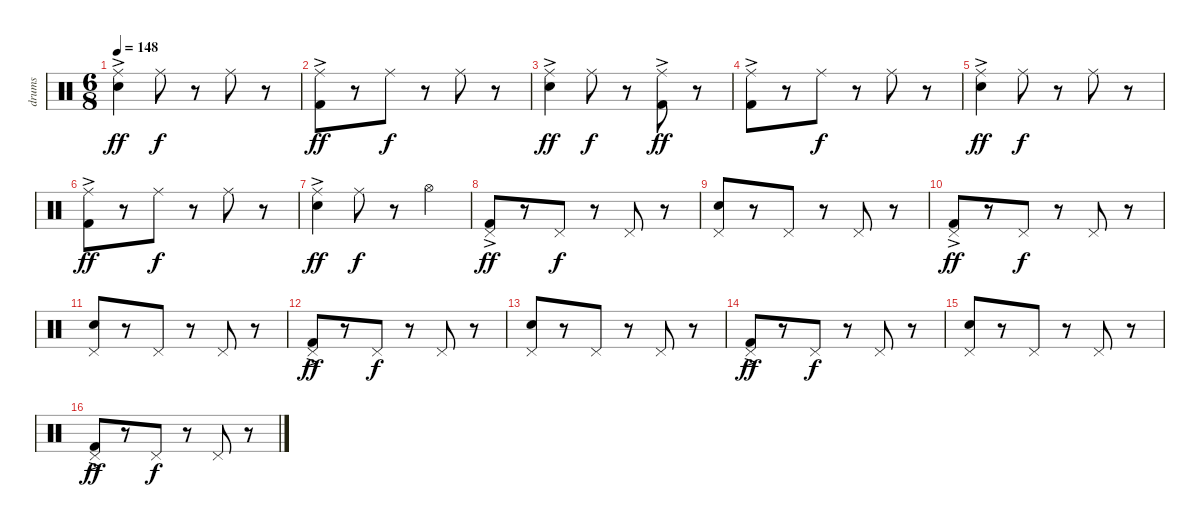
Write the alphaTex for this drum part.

\track ("drums" "drums") {instrument percussion}
\staff {score}
\articulation defaults
\ts (6 8)
\tempo 148
\clef neutral
\ks c
("Ride (middle)" "Electric Snare (hit)"{ac}).4{dy ff} "Ride (middle)".8{dy f} r.8 "Ride (middle)".8 r.8 |
("Ride (middle)" "Kick (hit) 2"{ac}).8{dy ff} r.8 "Ride (middle)".8{dy f} r.8 "Ride (middle)".8 r.8 |
("Ride (middle)" "Electric Snare (hit)"{ac}).4{dy ff} "Ride (middle)".8{dy f} r.8 ("Ride (middle)" "Kick (hit) 2"{ac}).8{dy ff} r.8 |
("Ride (middle)" "Kick (hit) 2"{ac}).8 r.8 "Ride (middle)".8{dy f} r.8 "Ride (middle)".8 r.8 |
("Ride (middle)" "Electric Snare (hit)"{ac}).4{dy ff} "Ride (middle)".8{dy f} r.8 "Ride (middle)".8 r.8 |
("Ride (middle)" "Kick (hit) 2"{ac}).8{dy ff} r.8 "Ride (middle)".8{dy f} r.8 "Ride (middle)".8 r.8 |
("Ride (middle)" "Electric Snare (hit)"{ac}).4{dy ff} "Ride (middle)".8{dy f} r.8 "Hi-Hat (open)".4 |
("Pedal Hi-Hat (hit)" "Kick (hit) 2"{ac}).8{dy ff} r.8 "Pedal Hi-Hat (hit)".8{dy f} r.8 "Pedal Hi-Hat (hit)".8 r.8 |
("Pedal Hi-Hat (hit)" "Electric Snare (hit)").8 r.8 "Pedal Hi-Hat (hit)".8 r.8 "Pedal Hi-Hat (hit)".8 r.8 |
("Pedal Hi-Hat (hit)" "Kick (hit) 2"{ac}).8{dy ff} r.8 "Pedal Hi-Hat (hit)".8{dy f} r.8 "Pedal Hi-Hat (hit)".8 r.8 |
("Pedal Hi-Hat (hit)" "Electric Snare (hit)").8 r.8 "Pedal Hi-Hat (hit)".8 r.8 "Pedal Hi-Hat (hit)".8 r.8 |
("Pedal Hi-Hat (hit)" "Kick (hit) 2"{ac}).8{dy ff} r.8 "Pedal Hi-Hat (hit)".8{dy f} r.8 "Pedal Hi-Hat (hit)".8 r.8 |
("Pedal Hi-Hat (hit)" "Electric Snare (hit)").8 r.8 "Pedal Hi-Hat (hit)".8 r.8 "Pedal Hi-Hat (hit)".8 r.8 |
("Pedal Hi-Hat (hit)" "Kick (hit) 2"{ac}).8{dy ff} r.8 "Pedal Hi-Hat (hit)".8{dy f} r.8 "Pedal Hi-Hat (hit)".8 r.8 |
("Pedal Hi-Hat (hit)" "Electric Snare (hit)").8 r.8 "Pedal Hi-Hat (hit)".8 r.8 "Pedal Hi-Hat (hit)".8 r.8 |
("Pedal Hi-Hat (hit)" "Kick (hit) 2"{ac}).8{dy ff} r.8 "Pedal Hi-Hat (hit)".8{dy f} r.8 "Pedal Hi-Hat (hit)".8 r.8
